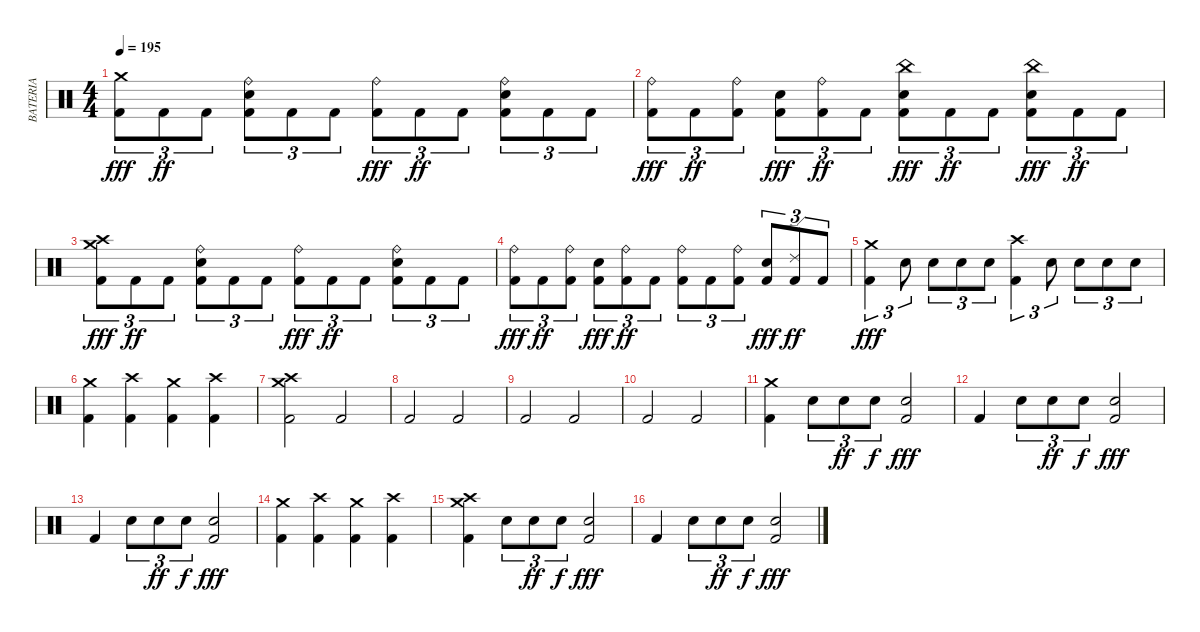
\track ("BATERIA" "BATERIA") {instrument percussion}
\staff
\articulation defaults
\ts (4 4)
\tempo 195
\clef neutral
\ks c
("Kick (hit) 2" "Crash medium (hit)").8{tu (3 2) dy fff} "Kick (hit) 2".8{tu (3 2) dy ff} "Kick (hit) 2".8{tu (3 2)} ("Kick (hit) 2" "Electric Snare (hit)" "Ride (bell)").8{tu (3 2)} "Kick (hit) 2".8{tu (3 2)} "Kick (hit) 2".8{tu (3 2)} ("Kick (hit) 2" "Ride (bell)").8{tu (3 2) dy fff} "Kick (hit) 2".8{tu (3 2) dy ff} "Kick (hit) 2".8{tu (3 2)} ("Kick (hit) 2" "Electric Snare (hit)" "Ride (bell)").8{tu (3 2)} "Kick (hit) 2".8{tu (3 2)} "Kick (hit) 2".8{tu (3 2)} |
("Kick (hit) 2" "Ride (bell)").8{tu (3 2) dy fff} "Kick (hit) 2".8{tu (3 2) dy ff} ("Kick (hit) 2" "Ride (bell)").8{tu (3 2)} ("Kick (hit) 2" "Electric Snare (hit)").8{tu (3 2) dy fff} ("Kick (hit) 2" "Ride (bell)").8{tu (3 2) dy ff} "Kick (hit) 2".8{tu (3 2)} ("Kick (hit) 2" "Electric Snare (hit)" "China (hit)").8{tu (3 2) dy fff} "Kick (hit) 2".8{tu (3 2) dy ff} "Kick (hit) 2".8{tu (3 2)} ("Kick (hit) 2" "Electric Snare (hit)" "China (hit)").8{tu (3 2) dy fff} "Kick (hit) 2".8{tu (3 2) dy ff} "Kick (hit) 2".8{tu (3 2)} |
("Kick (hit) 2" "Crash high (hit)" "Crash medium (hit)").8{tu (3 2) dy fff} "Kick (hit) 2".8{tu (3 2) dy ff} "Kick (hit) 2".8{tu (3 2)} ("Kick (hit) 2" "Electric Snare (hit)" "Ride (bell)").8{tu (3 2)} "Kick (hit) 2".8{tu (3 2)} "Kick (hit) 2".8{tu (3 2)} ("Kick (hit) 2" "Ride (bell)").8{tu (3 2) dy fff} "Kick (hit) 2".8{tu (3 2) dy ff} "Kick (hit) 2".8{tu (3 2)} ("Kick (hit) 2" "Electric Snare (hit)" "Ride (bell)").8{tu (3 2)} "Kick (hit) 2".8{tu (3 2)} "Kick (hit) 2".8{tu (3 2)} |
("Kick (hit) 2" "Ride (bell)").8{tu (3 2) dy fff} "Kick (hit) 2".8{tu (3 2) dy ff} ("Kick (hit) 2" "Ride (bell)").8{tu (3 2)} ("Kick (hit) 2" "Electric Snare (hit)").8{tu (3 2) dy fff} ("Kick (hit) 2" "Ride (bell)").8{tu (3 2) dy ff} "Kick (hit) 2".8{tu (3 2)} ("Kick (hit) 2" "Ride (bell)").8{tu (3 2)} "Kick (hit) 2".8{tu (3 2)} ("Kick (hit) 2" "Ride (bell)").8{tu (3 2)} ("Kick (hit) 2" "Electric Snare (hit)").8{tu (3 2) dy fff} ("Kick (hit) 2" "Ride (edge) 2").8{tu (3 2) dy ff} "Kick (hit) 2".8{tu (3 2)} |
("Kick (hit) 2" "Crash medium (hit)").4{tu (3 2) dy fff} "Electric Snare (hit)".8{tu (3 2)} "Electric Snare (hit)".8{tu (3 2)} "Electric Snare (hit)".8{tu (3 2)} "Electric Snare (hit)".8{tu (3 2)} ("Kick (hit) 2" "Crash high (hit)").4{tu (3 2)} "Electric Snare (hit)".8{tu (3 2)} "Electric Snare (hit)".8{tu (3 2)} "Electric Snare (hit)".8{tu (3 2)} "Electric Snare (hit)".8{tu (3 2)} |
("Kick (hit) 2" "Crash medium (hit)").4 ("Kick (hit) 2" "Crash high (hit)").4 ("Kick (hit) 2" "Crash medium (hit)").4 ("Kick (hit) 2" "Crash high (hit)").4 |
("Kick (hit) 2" "Crash medium (hit)" "Crash high (hit)").2 "Kick (hit) 2".2 |
"Kick (hit) 2".2 "Kick (hit) 2".2 |
"Kick (hit) 2".2 "Kick (hit) 2".2 |
"Kick (hit) 2".2 "Kick (hit) 2".2 |
("Kick (hit) 2" "Crash medium (hit)").4 "Electric Snare (hit)".8{tu (3 2)} "Electric Snare (hit)".8{tu (3 2) dy ff} "Electric Snare (hit)".8{tu (3 2) dy f} ("Kick (hit) 2" "Electric Snare (hit)").2{dy fff} |
"Kick (hit) 2".4 "Electric Snare (hit)".8{tu (3 2)} "Electric Snare (hit)".8{tu (3 2) dy ff} "Electric Snare (hit)".8{tu (3 2) dy f} ("Kick (hit) 2" "Electric Snare (hit)").2{dy fff} |
"Kick (hit) 2".4 "Electric Snare (hit)".8{tu (3 2)} "Electric Snare (hit)".8{tu (3 2) dy ff} "Electric Snare (hit)".8{tu (3 2) dy f} ("Kick (hit) 2" "Electric Snare (hit)").2{dy fff} |
("Kick (hit) 2" "Crash medium (hit)").4 ("Kick (hit) 2" "Crash high (hit)").4 ("Kick (hit) 2" "Crash medium (hit)").4 ("Kick (hit) 2" "Crash high (hit)").4 |
("Kick (hit) 2" "Crash medium (hit)" "Crash high (hit)").4 "Electric Snare (hit)".8{tu (3 2)} "Electric Snare (hit)".8{tu (3 2) dy ff} "Electric Snare (hit)".8{tu (3 2) dy f} ("Kick (hit) 2" "Electric Snare (hit)").2{dy fff} |
"Kick (hit) 2".4 "Electric Snare (hit)".8{tu (3 2)} "Electric Snare (hit)".8{tu (3 2) dy ff} "Electric Snare (hit)".8{tu (3 2) dy f} ("Kick (hit) 2" "Electric Snare (hit)").2{dy fff}
